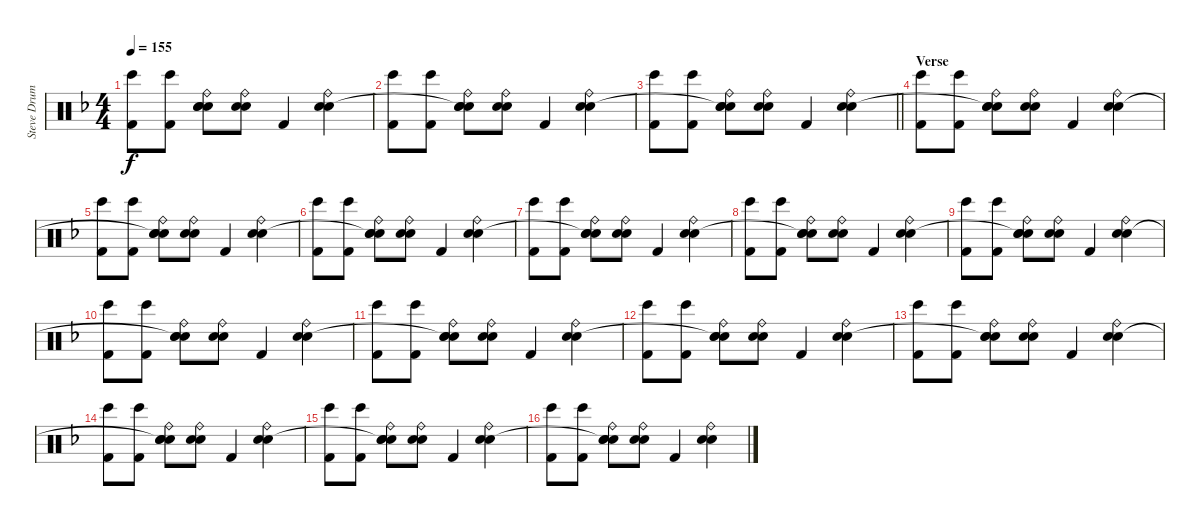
\track ("Steve Drums" "Steve Drum") {instrument percussion}
\staff {score}
\articulation defaults
\ts (4 4)
\tempo 155
\clef neutral
\ks f
("Bongo High (hit)" "Kick (hit) 2").8{dy f} ("Bongo High (hit)" "Kick (hit) 2").8 ("Ride (bell)" "Snare (hit) 2" "Snare (hit)"{t} "Electric Snare (hit)").8 ("Ride (bell)" "Snare (hit) 2" "Electric Snare (hit)").8 "Kick (hit) 2".4 ("Ride (bell)" "Snare (hit) 2" "Electric Snare (hit)").4 |
("Bongo High (hit)" "Kick (hit) 2").8 ("Bongo High (hit)" "Kick (hit) 2").8 ("Ride (bell)" "Snare (hit) 2" "Snare (hit)"{t} "Electric Snare (hit)").8 ("Ride (bell)" "Snare (hit) 2" "Electric Snare (hit)").8 "Kick (hit) 2".4 ("Ride (bell)" "Snare (hit) 2" "Electric Snare (hit)").4 |
\barLineRight lightlight
("Bongo High (hit)" "Kick (hit) 2").8 ("Bongo High (hit)" "Kick (hit) 2").8 ("Ride (bell)" "Snare (hit) 2" "Snare (hit)"{t} "Electric Snare (hit)").8 ("Ride (bell)" "Snare (hit) 2" "Electric Snare (hit)").8 "Kick (hit) 2".4 ("Ride (bell)" "Snare (hit) 2" "Electric Snare (hit)").4 |
\section ("" "Verse")
("Bongo High (hit)" "Kick (hit) 2").8 ("Bongo High (hit)" "Kick (hit) 2").8 ("Ride (bell)" "Snare (hit) 2" "Snare (hit)"{t} "Electric Snare (hit)").8 ("Ride (bell)" "Snare (hit) 2" "Electric Snare (hit)").8 "Kick (hit) 2".4 ("Ride (bell)" "Snare (hit) 2" "Electric Snare (hit)").4 |
("Bongo High (hit)" "Kick (hit) 2").8 ("Bongo High (hit)" "Kick (hit) 2").8 ("Ride (bell)" "Snare (hit) 2" "Snare (hit)"{t} "Electric Snare (hit)").8 ("Ride (bell)" "Snare (hit) 2" "Electric Snare (hit)").8 "Kick (hit) 2".4 ("Ride (bell)" "Snare (hit) 2" "Electric Snare (hit)").4 |
("Bongo High (hit)" "Kick (hit) 2").8 ("Bongo High (hit)" "Kick (hit) 2").8 ("Ride (bell)" "Snare (hit) 2" "Snare (hit)"{t} "Electric Snare (hit)").8 ("Ride (bell)" "Snare (hit) 2" "Electric Snare (hit)").8 "Kick (hit) 2".4 ("Ride (bell)" "Snare (hit) 2" "Electric Snare (hit)").4 |
("Bongo High (hit)" "Kick (hit) 2").8 ("Bongo High (hit)" "Kick (hit) 2").8 ("Ride (bell)" "Snare (hit) 2" "Snare (hit)"{t} "Electric Snare (hit)").8 ("Ride (bell)" "Snare (hit) 2" "Electric Snare (hit)").8 "Kick (hit) 2".4 ("Ride (bell)" "Snare (hit) 2" "Electric Snare (hit)").4 |
("Bongo High (hit)" "Kick (hit) 2").8 ("Bongo High (hit)" "Kick (hit) 2").8 ("Ride (bell)" "Snare (hit) 2" "Snare (hit)"{t} "Electric Snare (hit)").8 ("Ride (bell)" "Snare (hit) 2" "Electric Snare (hit)").8 "Kick (hit) 2".4 ("Ride (bell)" "Snare (hit) 2" "Electric Snare (hit)").4 |
("Bongo High (hit)" "Kick (hit) 2").8 ("Bongo High (hit)" "Kick (hit) 2").8 ("Ride (bell)" "Snare (hit) 2" "Snare (hit)"{t} "Electric Snare (hit)").8 ("Ride (bell)" "Snare (hit) 2" "Electric Snare (hit)").8 "Kick (hit) 2".4 ("Ride (bell)" "Snare (hit) 2" "Electric Snare (hit)").4 |
("Bongo High (hit)" "Kick (hit) 2").8 ("Bongo High (hit)" "Kick (hit) 2").8 ("Ride (bell)" "Snare (hit) 2" "Snare (hit)"{t} "Electric Snare (hit)").8 ("Ride (bell)" "Snare (hit) 2" "Electric Snare (hit)").8 "Kick (hit) 2".4 ("Ride (bell)" "Snare (hit) 2" "Electric Snare (hit)").4 |
("Bongo High (hit)" "Kick (hit) 2").8 ("Bongo High (hit)" "Kick (hit) 2").8 ("Ride (bell)" "Snare (hit) 2" "Snare (hit)"{t} "Electric Snare (hit)").8 ("Ride (bell)" "Snare (hit) 2" "Electric Snare (hit)").8 "Kick (hit) 2".4 ("Ride (bell)" "Snare (hit) 2" "Electric Snare (hit)").4 |
("Bongo High (hit)" "Kick (hit) 2").8 ("Bongo High (hit)" "Kick (hit) 2").8 ("Ride (bell)" "Snare (hit) 2" "Snare (hit)"{t} "Electric Snare (hit)").8 ("Ride (bell)" "Snare (hit) 2" "Electric Snare (hit)").8 "Kick (hit) 2".4 ("Ride (bell)" "Snare (hit) 2" "Electric Snare (hit)").4 |
("Bongo High (hit)" "Kick (hit) 2").8 ("Bongo High (hit)" "Kick (hit) 2").8 ("Ride (bell)" "Snare (hit) 2" "Snare (hit)"{t} "Electric Snare (hit)").8 ("Ride (bell)" "Snare (hit) 2" "Electric Snare (hit)").8 "Kick (hit) 2".4 ("Ride (bell)" "Snare (hit) 2" "Electric Snare (hit)").4 |
("Bongo High (hit)" "Kick (hit) 2").8 ("Bongo High (hit)" "Kick (hit) 2").8 ("Ride (bell)" "Snare (hit) 2" "Snare (hit)"{t} "Electric Snare (hit)").8 ("Ride (bell)" "Snare (hit) 2" "Electric Snare (hit)").8 "Kick (hit) 2".4 ("Ride (bell)" "Snare (hit) 2" "Electric Snare (hit)").4 |
("Bongo High (hit)" "Kick (hit) 2").8 ("Bongo High (hit)" "Kick (hit) 2").8 ("Ride (bell)" "Snare (hit) 2" "Snare (hit)"{t} "Electric Snare (hit)").8 ("Ride (bell)" "Snare (hit) 2" "Electric Snare (hit)").8 "Kick (hit) 2".4 ("Ride (bell)" "Snare (hit) 2" "Electric Snare (hit)").4 |
("Bongo High (hit)" "Kick (hit) 2").8 ("Bongo High (hit)" "Kick (hit) 2").8 ("Ride (bell)" "Snare (hit) 2" "Snare (hit)"{t} "Electric Snare (hit)").8 ("Ride (bell)" "Snare (hit) 2" "Electric Snare (hit)").8 "Kick (hit) 2".4 ("Ride (bell)" "Snare (hit) 2" "Electric Snare (hit)").4
